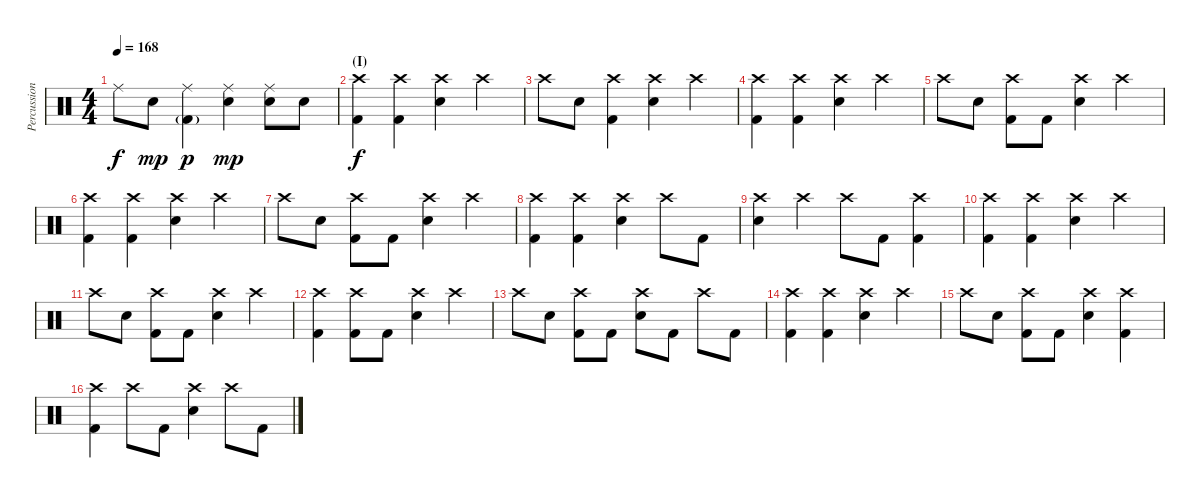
\track ("Percussion" "Percussion") {instrument percussion}
\staff {score}
\articulation defaults
\ts (4 4)
\tempo 168
\clef neutral
\ks c "Ride (middle)".8{dy f} "Snare (hit) 2".8{dy mp}
("Ride (middle)" "Kick (hit) 2"{g}).4{dy p} ("Ride (middle)" "Snare (hit) 2").4{dy mp} ("Ride (middle)" "Snare (hit) 2").8 "Snare (hit) 2".8 |
\section ("" "(I)")
("Crash high (hit)" "Kick (hit) 2").4{dy f volume 15} ("Crash high (hit)" "Kick (hit) 2").4 ("Crash high (hit)" "Snare (hit) 2").4 "Crash high (hit)".4 |
"Crash high (hit)".8 "Snare (hit) 2".8 ("Crash high (hit)" "Kick (hit) 2").4 ("Crash high (hit)" "Snare (hit) 2").4 "Crash high (hit)".4 |
("Crash high (hit)" "Kick (hit) 2").4 ("Crash high (hit)" "Kick (hit) 2").4 ("Crash high (hit)" "Snare (hit) 2").4 "Crash high (hit)".4 |
"Crash high (hit)".8 "Snare (hit) 2".8 ("Crash high (hit)" "Kick (hit) 2").8 "Kick (hit) 2".8 ("Crash high (hit)" "Snare (hit) 2").4 "Crash high (hit)".4 |
("Crash high (hit)" "Kick (hit) 2").4 ("Crash high (hit)" "Kick (hit) 2").4 ("Crash high (hit)" "Snare (hit) 2").4 "Crash high (hit)".4 |
"Crash high (hit)".8 "Snare (hit) 2".8 ("Crash high (hit)" "Kick (hit) 2").8 "Kick (hit) 2".8 ("Crash high (hit)" "Snare (hit) 2").4 "Crash high (hit)".4 |
("Crash high (hit)" "Kick (hit) 2").4 ("Crash high (hit)" "Kick (hit) 2").4 ("Crash high (hit)" "Snare (hit) 2").4 "Crash high (hit)".8 "Kick (hit) 2".8 |
("Crash high (hit)" "Snare (hit) 2").4 "Crash high (hit)".4 "Crash high (hit)".8 "Kick (hit) 2".8 ("Crash high (hit)" "Kick (hit) 2").4 |
("Crash high (hit)" "Kick (hit) 2").4 ("Crash high (hit)" "Kick (hit) 2").4 ("Crash high (hit)" "Snare (hit) 2").4 "Crash high (hit)".4 |
"Crash high (hit)".8 "Snare (hit) 2".8 ("Crash high (hit)" "Kick (hit) 2").8 "Kick (hit) 2".8 ("Crash high (hit)" "Snare (hit) 2").4 "Crash high (hit)".4 |
("Crash high (hit)" "Kick (hit) 2").4 ("Crash high (hit)" "Kick (hit) 2").8 "Kick (hit) 2".8 ("Crash high (hit)" "Snare (hit) 2").4 "Crash high (hit)".4 |
"Crash high (hit)".8 "Snare (hit) 2".8 ("Crash high (hit)" "Kick (hit) 2").8 "Kick (hit) 2".8 ("Crash high (hit)" "Snare (hit) 2").8 "Kick (hit) 2".8 "Crash high (hit)".8 "Kick (hit) 2".8 |
("Crash high (hit)" "Kick (hit) 2").4 ("Crash high (hit)" "Kick (hit) 2").4 ("Crash high (hit)" "Snare (hit) 2").4 "Crash high (hit)".4 |
"Crash high (hit)".8 "Snare (hit) 2".8 ("Crash high (hit)" "Kick (hit) 2").8 "Kick (hit) 2".8 ("Crash high (hit)" "Snare (hit) 2").4 ("Crash high (hit)" "Kick (hit) 2").4 |
("Crash high (hit)" "Kick (hit) 2").4 "Crash high (hit)".8 "Kick (hit) 2".8 ("Crash high (hit)" "Snare (hit) 2").4 "Crash high (hit)".8 "Kick (hit) 2".8
